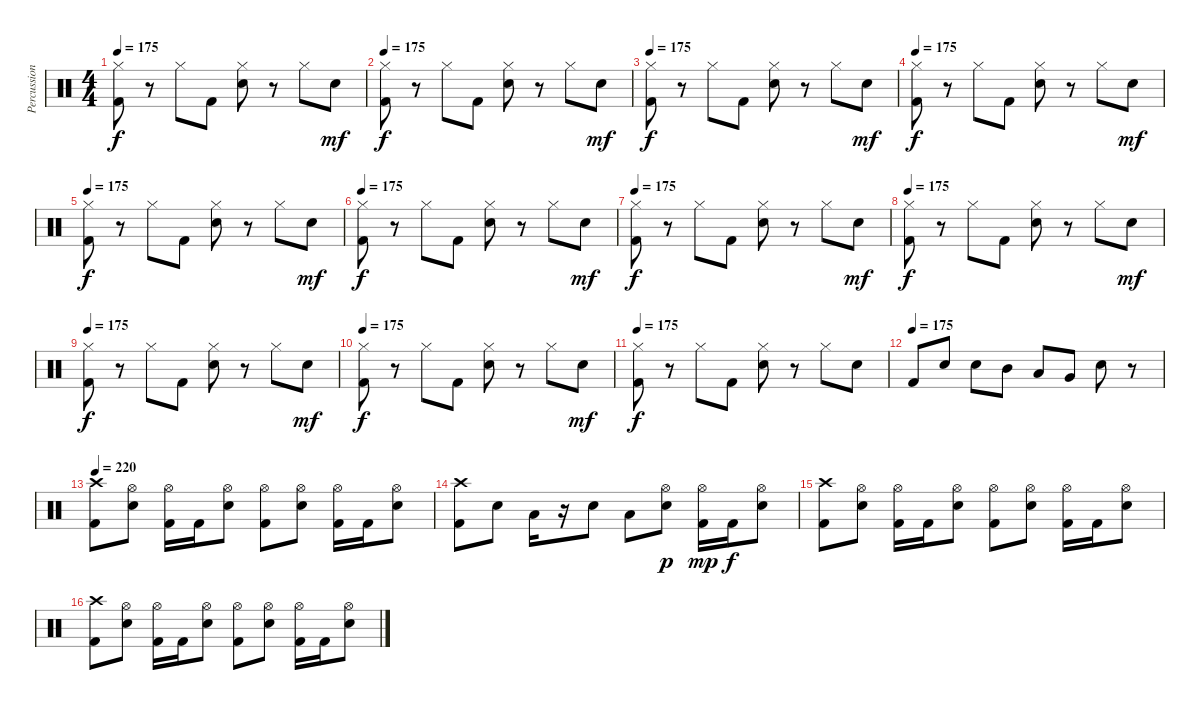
\track ("Percussions" "Percussion") {instrument percussion}
\staff {score}
\articulation defaults
\ts (4 4)
\tempo 175
\clef neutral
\ks c
("Hi-Hat (closed)" "Kick (hit) 2").8{dy f} r.8 "Hi-Hat (closed)".8 "Kick (hit) 2".8 ("Hi-Hat (closed)" "Snare (hit) 2").8 r.8 "Hi-Hat (closed)".8 "Snare (hit) 2".8{dy mf} |
\tempo 175
("Hi-Hat (closed)" "Kick (hit) 2").8{dy f} r.8 "Hi-Hat (closed)".8 "Kick (hit) 2".8 ("Hi-Hat (closed)" "Snare (hit) 2").8 r.8 "Hi-Hat (closed)".8 "Snare (hit) 2".8{dy mf} |
\tempo 175
("Hi-Hat (closed)" "Kick (hit) 2").8{dy f} r.8 "Hi-Hat (closed)".8 "Kick (hit) 2".8 ("Hi-Hat (closed)" "Snare (hit) 2").8 r.8 "Hi-Hat (closed)".8 "Snare (hit) 2".8{dy mf} |
\tempo 175
("Hi-Hat (closed)" "Kick (hit) 2").8{dy f} r.8 "Hi-Hat (closed)".8 "Kick (hit) 2".8 ("Hi-Hat (closed)" "Snare (hit) 2").8 r.8 "Hi-Hat (closed)".8 "Snare (hit) 2".8{dy mf} |
\tempo 175
("Hi-Hat (closed)" "Kick (hit) 2").8{dy f} r.8 "Hi-Hat (closed)".8 "Kick (hit) 2".8 ("Hi-Hat (closed)" "Snare (hit) 2").8 r.8 "Hi-Hat (closed)".8 "Snare (hit) 2".8{dy mf} |
\tempo 175
("Hi-Hat (closed)" "Kick (hit) 2").8{dy f} r.8 "Hi-Hat (closed)".8 "Kick (hit) 2".8 ("Hi-Hat (closed)" "Snare (hit) 2").8 r.8 "Hi-Hat (closed)".8 "Snare (hit) 2".8{dy mf} |
\tempo 175
("Hi-Hat (closed)" "Kick (hit) 2").8{dy f} r.8 "Hi-Hat (closed)".8 "Kick (hit) 2".8 ("Hi-Hat (closed)" "Snare (hit) 2").8 r.8 "Hi-Hat (closed)".8 "Snare (hit) 2".8{dy mf} |
\tempo 175
("Hi-Hat (closed)" "Kick (hit) 2").8{dy f} r.8 "Hi-Hat (closed)".8 "Kick (hit) 2".8 ("Hi-Hat (closed)" "Snare (hit) 2").8 r.8 "Hi-Hat (closed)".8 "Snare (hit) 2".8{dy mf} |
\tempo 175
("Hi-Hat (closed)" "Kick (hit) 2").8{dy f} r.8 "Hi-Hat (closed)".8 "Kick (hit) 2".8 ("Hi-Hat (closed)" "Snare (hit) 2").8 r.8 "Hi-Hat (closed)".8 "Snare (hit) 2".8{dy mf} |
\tempo 175
("Hi-Hat (closed)" "Kick (hit) 2").8{dy f} r.8 "Hi-Hat (closed)".8 "Kick (hit) 2".8 ("Hi-Hat (closed)" "Snare (hit) 2").8 r.8 "Hi-Hat (closed)".8 "Snare (hit) 2".8{dy mf} |
\tempo 175
("Hi-Hat (closed)" "Kick (hit) 2").8{dy f} r.8 "Hi-Hat (closed)".8 "Kick (hit) 2".8 ("Hi-Hat (closed)" "Snare (hit) 2").8 r.8 "Hi-Hat (closed)".8 "Snare (hit) 2".8 |
\tempo (175)
"Kick (hit) 2".8 "Snare (hit) 2".8 "Snare (hit) 2".8 "Mid Tom (hit)".8 "Low Tom (hit)".8 "Very Low Tom (hit)".8 "Snare (hit) 2".8 r.8 |
\tempo 220
("Crash high (hit)" "Kick (hit) 2").8 ("Hi-Hat (open)" "Snare (hit) 2").8 ("Hi-Hat (open)" "Kick (hit) 2").16 "Kick (hit) 2".16 ("Hi-Hat (open)" "Snare (hit) 2").8 ("Hi-Hat (open)" "Kick (hit) 2").8 ("Hi-Hat (open)" "Snare (hit) 2").8 ("Hi-Hat (open)" "Kick (hit) 2").16 "Kick (hit) 2".16 ("Hi-Hat (open)" "Snare (hit) 2").8 |
("Crash high (hit)" "Kick (hit) 2").8 "Snare (hit) 2".8 "Low Tom (hit)".16 r.16 "Snare (hit) 2".8 "Low Tom (hit)".8 ("Hi-Hat (open)" "Snare (hit) 2").8{dy p} ("Hi-Hat (open)" "Kick (hit) 2").16{dy mp} "Kick (hit) 2".16{dy f} ("Hi-Hat (open)" "Snare (hit) 2").8 |
("Crash high (hit)" "Kick (hit) 2").8 ("Hi-Hat (open)" "Snare (hit) 2").8 ("Hi-Hat (open)" "Kick (hit) 2").16 "Kick (hit) 2".16 ("Hi-Hat (open)" "Snare (hit) 2").8 ("Hi-Hat (open)" "Kick (hit) 2").8 ("Hi-Hat (open)" "Snare (hit) 2").8 ("Hi-Hat (open)" "Kick (hit) 2").16 "Kick (hit) 2".16 ("Hi-Hat (open)" "Snare (hit) 2").8 |
("Crash high (hit)" "Kick (hit) 2").8 ("Hi-Hat (open)" "Snare (hit) 2").8 ("Hi-Hat (open)" "Kick (hit) 2").16 "Kick (hit) 2".16 ("Hi-Hat (open)" "Snare (hit) 2").8 ("Hi-Hat (open)" "Kick (hit) 2").8 ("Hi-Hat (open)" "Snare (hit) 2").8 ("Hi-Hat (open)" "Kick (hit) 2").16 "Kick (hit) 2".16 ("Hi-Hat (open)" "Snare (hit) 2").8
